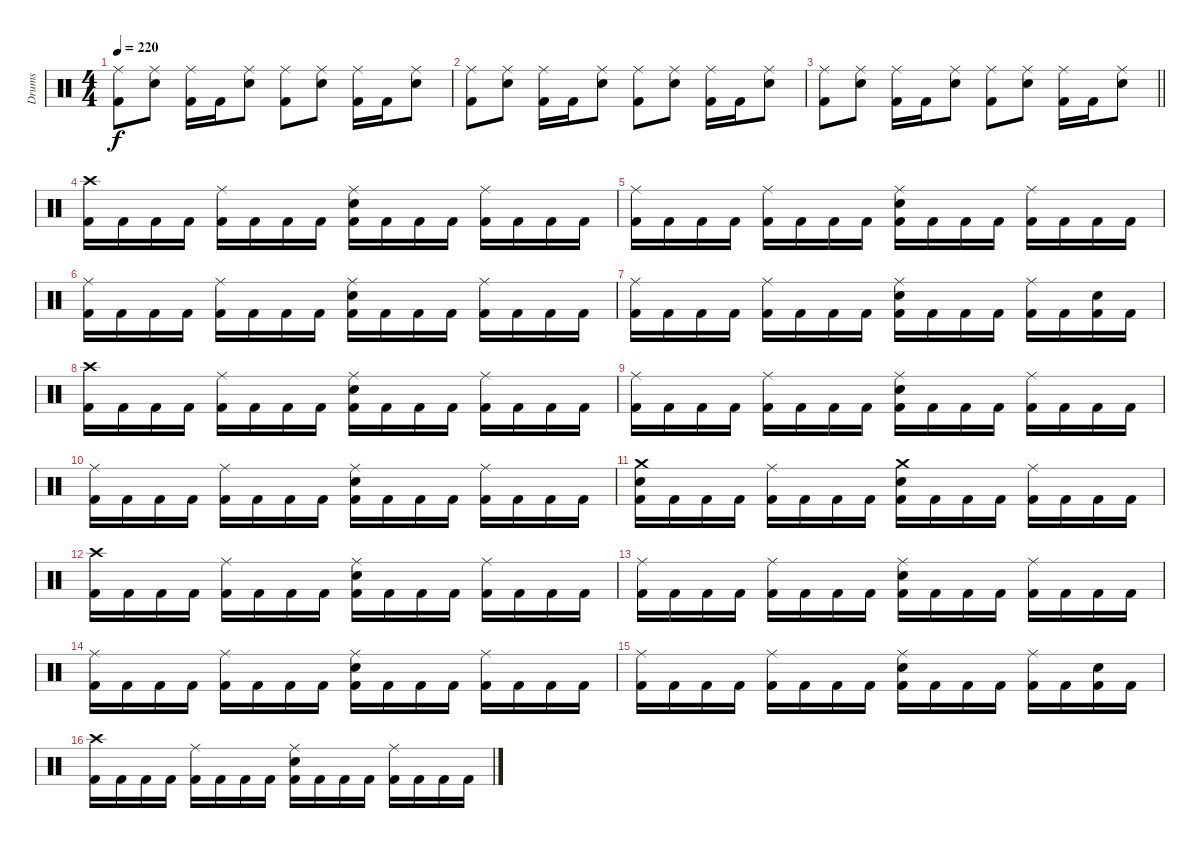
\track ("Drums" "Drums") {instrument percussion}
\staff {score}
\articulation defaults
\ts (4 4)
\tempo 220
\clef neutral
\ks c
("Ride (middle)" "Kick (hit) 2").8{dy f} ("Ride (middle)" "Snare (hit) 2").8 ("Ride (middle)" "Kick (hit) 2").16 "Kick (hit) 2".16 ("Ride (middle)" "Snare (hit) 2").8 ("Ride (middle)" "Kick (hit) 2").8 ("Ride (middle)" "Snare (hit) 2").8 ("Ride (middle)" "Kick (hit) 2").16 "Kick (hit) 2".16 ("Ride (middle)" "Snare (hit) 2").8 |
("Ride (middle)" "Kick (hit) 2").8 ("Ride (middle)" "Snare (hit) 2").8 ("Ride (middle)" "Kick (hit) 2").16 "Kick (hit) 2".16 ("Ride (middle)" "Snare (hit) 2").8 ("Ride (middle)" "Kick (hit) 2").8 ("Ride (middle)" "Snare (hit) 2").8 ("Ride (middle)" "Kick (hit) 2").16 "Kick (hit) 2".16 ("Ride (middle)" "Snare (hit) 2").8 |
\barLineRight lightlight
("Ride (middle)" "Kick (hit) 2").8 ("Ride (middle)" "Snare (hit) 2").8 ("Ride (middle)" "Kick (hit) 2").16 "Kick (hit) 2".16 ("Ride (middle)" "Snare (hit) 2").8 ("Ride (middle)" "Kick (hit) 2").8 ("Ride (middle)" "Snare (hit) 2").8 ("Ride (middle)" "Kick (hit) 2").16 "Kick (hit) 2".16 ("Ride (middle)" "Snare (hit) 2").8 |
\section ("" "")
("Crash high (hit)" "Kick (hit) 2").16 "Kick (hit) 2".16 "Kick (hit) 2".16 "Kick (hit) 2".16 ("Ride (middle)" "Kick (hit) 2").16 "Kick (hit) 2".16 "Kick (hit) 2".16 "Kick (hit) 2".16 ("Ride (middle)" "Snare (hit) 2" "Kick (hit) 2").16 "Kick (hit) 2".16 "Kick (hit) 2".16 "Kick (hit) 2".16 ("Ride (middle)" "Kick (hit) 2").16 "Kick (hit) 2".16 "Kick (hit) 2".16 "Kick (hit) 2".16 |
("Ride (middle)" "Kick (hit) 2").16 "Kick (hit) 2".16 "Kick (hit) 2".16 "Kick (hit) 2".16 ("Ride (middle)" "Kick (hit) 2").16 "Kick (hit) 2".16 "Kick (hit) 2".16 "Kick (hit) 2".16 ("Ride (middle)" "Snare (hit) 2" "Kick (hit) 2").16 "Kick (hit) 2".16 "Kick (hit) 2".16 "Kick (hit) 2".16 ("Ride (middle)" "Kick (hit) 2").16 "Kick (hit) 2".16 "Kick (hit) 2".16 "Kick (hit) 2".16 |
("Ride (middle)" "Kick (hit) 2").16 "Kick (hit) 2".16 "Kick (hit) 2".16 "Kick (hit) 2".16 ("Ride (middle)" "Kick (hit) 2").16 "Kick (hit) 2".16 "Kick (hit) 2".16 "Kick (hit) 2".16 ("Ride (middle)" "Snare (hit) 2" "Kick (hit) 2").16 "Kick (hit) 2".16 "Kick (hit) 2".16 "Kick (hit) 2".16 ("Ride (middle)" "Kick (hit) 2").16 "Kick (hit) 2".16 "Kick (hit) 2".16 "Kick (hit) 2".16 |
("Ride (middle)" "Kick (hit) 2").16 "Kick (hit) 2".16 "Kick (hit) 2".16 "Kick (hit) 2".16 ("Ride (middle)" "Kick (hit) 2").16 "Kick (hit) 2".16 "Kick (hit) 2".16 "Kick (hit) 2".16 ("Ride (middle)" "Snare (hit) 2" "Kick (hit) 2").16 "Kick (hit) 2".16 "Kick (hit) 2".16 "Kick (hit) 2".16 ("Ride (middle)" "Kick (hit) 2").16 "Kick (hit) 2".16 ("Snare (hit) 2" "Kick (hit) 2").16 "Kick (hit) 2".16 |
("Crash high (hit)" "Kick (hit) 2").16 "Kick (hit) 2".16 "Kick (hit) 2".16 "Kick (hit) 2".16 ("Ride (middle)" "Kick (hit) 2").16 "Kick (hit) 2".16 "Kick (hit) 2".16 "Kick (hit) 2".16 ("Ride (middle)" "Snare (hit) 2" "Kick (hit) 2").16 "Kick (hit) 2".16 "Kick (hit) 2".16 "Kick (hit) 2".16 ("Ride (middle)" "Kick (hit) 2").16 "Kick (hit) 2".16 "Kick (hit) 2".16 "Kick (hit) 2".16 |
("Ride (middle)" "Kick (hit) 2").16 "Kick (hit) 2".16 "Kick (hit) 2".16 "Kick (hit) 2".16 ("Ride (middle)" "Kick (hit) 2").16 "Kick (hit) 2".16 "Kick (hit) 2".16 "Kick (hit) 2".16 ("Ride (middle)" "Snare (hit) 2" "Kick (hit) 2").16 "Kick (hit) 2".16 "Kick (hit) 2".16 "Kick (hit) 2".16 ("Ride (middle)" "Kick (hit) 2").16 "Kick (hit) 2".16 "Kick (hit) 2".16 "Kick (hit) 2".16 |
("Ride (middle)" "Kick (hit) 2").16 "Kick (hit) 2".16 "Kick (hit) 2".16 "Kick (hit) 2".16 ("Ride (middle)" "Kick (hit) 2").16 "Kick (hit) 2".16 "Kick (hit) 2".16 "Kick (hit) 2".16 ("Ride (middle)" "Snare (hit) 2" "Kick (hit) 2").16 "Kick (hit) 2".16 "Kick (hit) 2".16 "Kick (hit) 2".16 ("Ride (middle)" "Kick (hit) 2").16 "Kick (hit) 2".16 "Kick (hit) 2".16 "Kick (hit) 2".16 |
("Crash medium (hit)" "Snare (hit) 2" "Kick (hit) 2").16 "Kick (hit) 2".16 "Kick (hit) 2".16 "Kick (hit) 2".16 ("Ride (middle)" "Kick (hit) 2").16 "Kick (hit) 2".16 "Kick (hit) 2".16 "Kick (hit) 2".16 ("Crash medium (hit)" "Snare (hit) 2" "Kick (hit) 2").16 "Kick (hit) 2".16 "Kick (hit) 2".16 "Kick (hit) 2".16 ("Ride (middle)" "Kick (hit) 2").16 "Kick (hit) 2".16 "Kick (hit) 2".16 "Kick (hit) 2".16 |
("Crash high (hit)" "Kick (hit) 2").16 "Kick (hit) 2".16 "Kick (hit) 2".16 "Kick (hit) 2".16 ("Ride (middle)" "Kick (hit) 2").16 "Kick (hit) 2".16 "Kick (hit) 2".16 "Kick (hit) 2".16 ("Ride (middle)" "Snare (hit) 2" "Kick (hit) 2").16 "Kick (hit) 2".16 "Kick (hit) 2".16 "Kick (hit) 2".16 ("Ride (middle)" "Kick (hit) 2").16 "Kick (hit) 2".16 "Kick (hit) 2".16 "Kick (hit) 2".16 |
("Ride (middle)" "Kick (hit) 2").16 "Kick (hit) 2".16 "Kick (hit) 2".16 "Kick (hit) 2".16 ("Ride (middle)" "Kick (hit) 2").16 "Kick (hit) 2".16 "Kick (hit) 2".16 "Kick (hit) 2".16 ("Ride (middle)" "Snare (hit) 2" "Kick (hit) 2").16 "Kick (hit) 2".16 "Kick (hit) 2".16 "Kick (hit) 2".16 ("Ride (middle)" "Kick (hit) 2").16 "Kick (hit) 2".16 "Kick (hit) 2".16 "Kick (hit) 2".16 |
("Ride (middle)" "Kick (hit) 2").16 "Kick (hit) 2".16 "Kick (hit) 2".16 "Kick (hit) 2".16 ("Ride (middle)" "Kick (hit) 2").16 "Kick (hit) 2".16 "Kick (hit) 2".16 "Kick (hit) 2".16 ("Ride (middle)" "Snare (hit) 2" "Kick (hit) 2").16 "Kick (hit) 2".16 "Kick (hit) 2".16 "Kick (hit) 2".16 ("Ride (middle)" "Kick (hit) 2").16 "Kick (hit) 2".16 "Kick (hit) 2".16 "Kick (hit) 2".16 |
("Ride (middle)" "Kick (hit) 2").16 "Kick (hit) 2".16 "Kick (hit) 2".16 "Kick (hit) 2".16 ("Ride (middle)" "Kick (hit) 2").16 "Kick (hit) 2".16 "Kick (hit) 2".16 "Kick (hit) 2".16 ("Ride (middle)" "Snare (hit) 2" "Kick (hit) 2").16 "Kick (hit) 2".16 "Kick (hit) 2".16 "Kick (hit) 2".16 ("Ride (middle)" "Kick (hit) 2").16 "Kick (hit) 2".16 ("Snare (hit) 2" "Kick (hit) 2").16 "Kick (hit) 2".16 |
("Crash high (hit)" "Kick (hit) 2").16 "Kick (hit) 2".16 "Kick (hit) 2".16 "Kick (hit) 2".16 ("Ride (middle)" "Kick (hit) 2").16 "Kick (hit) 2".16 "Kick (hit) 2".16 "Kick (hit) 2".16 ("Ride (middle)" "Snare (hit) 2" "Kick (hit) 2").16 "Kick (hit) 2".16 "Kick (hit) 2".16 "Kick (hit) 2".16 ("Ride (middle)" "Kick (hit) 2").16 "Kick (hit) 2".16 "Kick (hit) 2".16 "Kick (hit) 2".16
